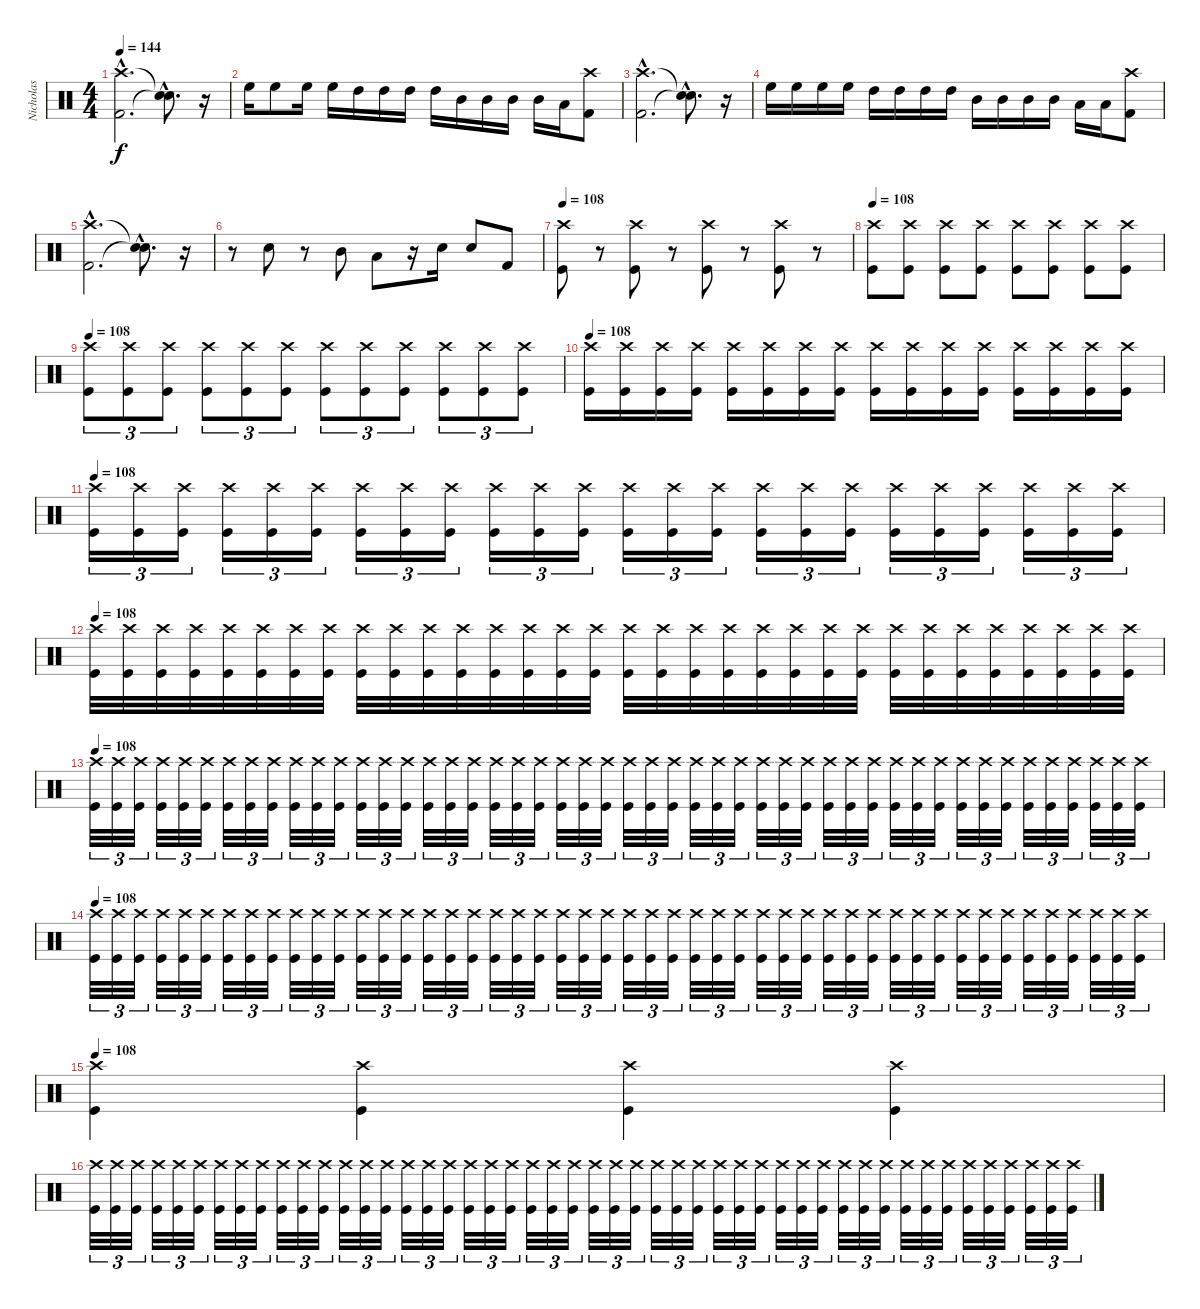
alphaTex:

\track ("Nicholas" "Nicholas") {instrument percussion}
\staff {score}
\articulation defaults
\ts (4 4)
\tempo 144
\clef neutral
\ks c
("Kick (hit) 2"{hac} "Crash high (hit)"{hac}).2{d dy f} ("Snare (hit)"{hac t} "Snare (hit)"{hac t}).8{d} r.16 |
"High Floor Tom (hit)".16 "High Floor Tom (hit)".8 "High Floor Tom (hit)".16 "High Floor Tom (hit)".16 "High Tom (hit)".16 "High Tom (hit)".16 "High Tom (hit)".16 "High Tom (hit)".16 "Mid Tom (hit)".16 "Mid Tom (hit)".16 "Mid Tom (hit)".16 "Mid Tom (hit)".16 "Low Tom (hit)".16 ("Kick (hit) 2" "Crash high (hit)").8 |
("Kick (hit) 2"{hac} "Crash high (hit)"{hac}).2{d} ("Snare (hit)"{hac t} "Snare (hit)"{hac t}).8{d} r.16 |
"High Floor Tom (hit)".16 "High Floor Tom (hit)".16 "High Floor Tom (hit)".16 "High Floor Tom (hit)".16 "High Tom (hit)".16 "High Tom (hit)".16 "High Tom (hit)".16 "High Tom (hit)".16 "Mid Tom (hit)".16 "Mid Tom (hit)".16 "Mid Tom (hit)".16 "Mid Tom (hit)".16 "Low Tom (hit)".16 "Low Tom (hit)".16 ("Kick (hit) 2" "Crash high (hit)").8 |
("Kick (hit) 2"{hac} "Crash high (hit)"{hac}).2{d} ("Snare (hit)"{hac t} "Snare (hit)"{hac t}).8{d} r.16 |
r.8 "Snare (hit) 2".8 r.8 "Mid Tom (hit)".8 "Low Tom (hit)".8 r.16 "Snare (hit) 2".16 "Snare (hit) 2".8 "Kick (hit) 2".8 |
\tempo 108
("Kick (hit)" "Crash high (hit)").8 r.8 ("Kick (hit)" "Crash high (hit)").8 r.8 ("Kick (hit)" "Crash high (hit)").8 r.8 ("Kick (hit)" "Crash high (hit)").8 r.8 |
\tempo 108
("Kick (hit)" "Crash high (hit)").8 ("Kick (hit)" "Crash high (hit)").8 ("Kick (hit)" "Crash high (hit)").8 ("Kick (hit)" "Crash high (hit)").8 ("Kick (hit)" "Crash high (hit)").8 ("Kick (hit)" "Crash high (hit)").8 ("Kick (hit)" "Crash high (hit)").8 ("Kick (hit)" "Crash high (hit)").8 |
\tempo 108
("Kick (hit)" "Crash high (hit)").8{tu (3 2)} ("Kick (hit)" "Crash high (hit)").8{tu (3 2)} ("Kick (hit)" "Crash high (hit)").8{tu (3 2)} ("Kick (hit)" "Crash high (hit)").8{tu (3 2)} ("Kick (hit)" "Crash high (hit)").8{tu (3 2)} ("Kick (hit)" "Crash high (hit)").8{tu (3 2)} ("Kick (hit)" "Crash high (hit)").8{tu (3 2)} ("Kick (hit)" "Crash high (hit)").8{tu (3 2)} ("Kick (hit)" "Crash high (hit)").8{tu (3 2)} ("Kick (hit)" "Crash high (hit)").8{tu (3 2)} ("Kick (hit)" "Crash high (hit)").8{tu (3 2)} ("Kick (hit)" "Crash high (hit)").8{tu (3 2)} |
\tempo 108
("Kick (hit)" "Crash high (hit)").16 ("Kick (hit)" "Crash high (hit)").16 ("Kick (hit)" "Crash high (hit)").16 ("Kick (hit)" "Crash high (hit)").16 ("Kick (hit)" "Crash high (hit)").16 ("Kick (hit)" "Crash high (hit)").16 ("Kick (hit)" "Crash high (hit)").16 ("Kick (hit)" "Crash high (hit)").16 ("Kick (hit)" "Crash high (hit)").16 ("Kick (hit)" "Crash high (hit)").16 ("Kick (hit)" "Crash high (hit)").16 ("Kick (hit)" "Crash high (hit)").16 ("Kick (hit)" "Crash high (hit)").16 ("Kick (hit)" "Crash high (hit)").16 ("Kick (hit)" "Crash high (hit)").16 ("Kick (hit)" "Crash high (hit)").16 |
\tempo 108
("Kick (hit)" "Crash high (hit)").16{tu (3 2)} ("Kick (hit)" "Crash high (hit)").16{tu (3 2)} ("Kick (hit)" "Crash high (hit)").16{tu (3 2)} ("Kick (hit)" "Crash high (hit)").16{tu (3 2)} ("Kick (hit)" "Crash high (hit)").16{tu (3 2)} ("Kick (hit)" "Crash high (hit)").16{tu (3 2)} ("Kick (hit)" "Crash high (hit)").16{tu (3 2)} ("Kick (hit)" "Crash high (hit)").16{tu (3 2)} ("Kick (hit)" "Crash high (hit)").16{tu (3 2)} ("Kick (hit)" "Crash high (hit)").16{tu (3 2)} ("Kick (hit)" "Crash high (hit)").16{tu (3 2)} ("Kick (hit)" "Crash high (hit)").16{tu (3 2)} ("Kick (hit)" "Crash high (hit)").16{tu (3 2)} ("Kick (hit)" "Crash high (hit)").16{tu (3 2)} ("Kick (hit)" "Crash high (hit)").16{tu (3 2)} ("Kick (hit)" "Crash high (hit)").16{tu (3 2)} ("Kick (hit)" "Crash high (hit)").16{tu (3 2)} ("Kick (hit)" "Crash high (hit)").16{tu (3 2)} ("Kick (hit)" "Crash high (hit)").16{tu (3 2)} ("Kick (hit)" "Crash high (hit)").16{tu (3 2)} ("Kick (hit)" "Crash high (hit)").16{tu (3 2)} ("Kick (hit)" "Crash high (hit)").16{tu (3 2)} ("Kick (hit)" "Crash high (hit)").16{tu (3 2)} ("Kick (hit)" "Crash high (hit)").16{tu (3 2)} |
\tempo 108
("Kick (hit)" "Crash high (hit)").32 ("Kick (hit)" "Crash high (hit)").32 ("Kick (hit)" "Crash high (hit)").32 ("Kick (hit)" "Crash high (hit)").32 ("Kick (hit)" "Crash high (hit)").32 ("Kick (hit)" "Crash high (hit)").32 ("Kick (hit)" "Crash high (hit)").32 ("Kick (hit)" "Crash high (hit)").32 ("Kick (hit)" "Crash high (hit)").32 ("Kick (hit)" "Crash high (hit)").32 ("Kick (hit)" "Crash high (hit)").32 ("Kick (hit)" "Crash high (hit)").32 ("Kick (hit)" "Crash high (hit)").32 ("Kick (hit)" "Crash high (hit)").32 ("Kick (hit)" "Crash high (hit)").32 ("Kick (hit)" "Crash high (hit)").32 ("Kick (hit)" "Crash high (hit)").32 ("Kick (hit)" "Crash high (hit)").32 ("Kick (hit)" "Crash high (hit)").32 ("Kick (hit)" "Crash high (hit)").32 ("Kick (hit)" "Crash high (hit)").32 ("Kick (hit)" "Crash high (hit)").32 ("Kick (hit)" "Crash high (hit)").32 ("Kick (hit)" "Crash high (hit)").32 ("Kick (hit)" "Crash high (hit)").32 ("Kick (hit)" "Crash high (hit)").32 ("Kick (hit)" "Crash high (hit)").32 ("Kick (hit)" "Crash high (hit)").32 ("Kick (hit)" "Crash high (hit)").32 ("Kick (hit)" "Crash high (hit)").32 ("Kick (hit)" "Crash high (hit)").32 ("Kick (hit)" "Crash high (hit)").32 |
\tempo 108
("Kick (hit)" "Crash high (hit)").32{tu (3 2)} ("Kick (hit)" "Crash high (hit)").32{tu (3 2)} ("Kick (hit)" "Crash high (hit)").32{tu (3 2)} ("Kick (hit)" "Crash high (hit)").32{tu (3 2)} ("Kick (hit)" "Crash high (hit)").32{tu (3 2)} ("Kick (hit)" "Crash high (hit)").32{tu (3 2)} ("Kick (hit)" "Crash high (hit)").32{tu (3 2)} ("Kick (hit)" "Crash high (hit)").32{tu (3 2)} ("Kick (hit)" "Crash high (hit)").32{tu (3 2)} ("Kick (hit)" "Crash high (hit)").32{tu (3 2)} ("Kick (hit)" "Crash high (hit)").32{tu (3 2)} ("Kick (hit)" "Crash high (hit)").32{tu (3 2)} ("Kick (hit)" "Crash high (hit)").32{tu (3 2)} ("Kick (hit)" "Crash high (hit)").32{tu (3 2)} ("Kick (hit)" "Crash high (hit)").32{tu (3 2)} ("Kick (hit)" "Crash high (hit)").32{tu (3 2)} ("Kick (hit)" "Crash high (hit)").32{tu (3 2)} ("Kick (hit)" "Crash high (hit)").32{tu (3 2)} ("Kick (hit)" "Crash high (hit)").32{tu (3 2)} ("Kick (hit)" "Crash high (hit)").32{tu (3 2)} ("Kick (hit)" "Crash high (hit)").32{tu (3 2)} ("Kick (hit)" "Crash high (hit)").32{tu (3 2)} ("Kick (hit)" "Crash high (hit)").32{tu (3 2)} ("Kick (hit)" "Crash high (hit)").32{tu (3 2)} ("Kick (hit)" "Crash high (hit)").32{tu (3 2)} ("Kick (hit)" "Crash high (hit)").32{tu (3 2)} ("Kick (hit)" "Crash high (hit)").32{tu (3 2)} ("Kick (hit)" "Crash high (hit)").32{tu (3 2)} ("Kick (hit)" "Crash high (hit)").32{tu (3 2)} ("Kick (hit)" "Crash high (hit)").32{tu (3 2)} ("Kick (hit)" "Crash high (hit)").32{tu (3 2)} ("Kick (hit)" "Crash high (hit)").32{tu (3 2)} ("Kick (hit)" "Crash high (hit)").32{tu (3 2)} ("Kick (hit)" "Crash high (hit)").32{tu (3 2)} ("Kick (hit)" "Crash high (hit)").32{tu (3 2)} ("Kick (hit)" "Crash high (hit)").32{tu (3 2)} ("Kick (hit)" "Crash high (hit)").32{tu (3 2)} ("Kick (hit)" "Crash high (hit)").32{tu (3 2)} ("Kick (hit)" "Crash high (hit)").32{tu (3 2)} ("Kick (hit)" "Crash high (hit)").32{tu (3 2)} ("Kick (hit)" "Crash high (hit)").32{tu (3 2)} ("Kick (hit)" "Crash high (hit)").32{tu (3 2)} ("Kick (hit)" "Crash high (hit)").32{tu (3 2)} ("Kick (hit)" "Crash high (hit)").32{tu (3 2)} ("Kick (hit)" "Crash high (hit)").32{tu (3 2)} ("Kick (hit)" "Crash high (hit)").32{tu (3 2)} ("Kick (hit)" "Crash high (hit)").32{tu (3 2)} ("Kick (hit)" "Crash high (hit)").32{tu (3 2)} |
\tempo 108
("Kick (hit)" "Crash high (hit)").32{tu (3 2)} ("Kick (hit)" "Crash high (hit)").32{tu (3 2)} ("Kick (hit)" "Crash high (hit)").32{tu (3 2)} ("Kick (hit)" "Crash high (hit)").32{tu (3 2)} ("Kick (hit)" "Crash high (hit)").32{tu (3 2)} ("Kick (hit)" "Crash high (hit)").32{tu (3 2)} ("Kick (hit)" "Crash high (hit)").32{tu (3 2)} ("Kick (hit)" "Crash high (hit)").32{tu (3 2)} ("Kick (hit)" "Crash high (hit)").32{tu (3 2)} ("Kick (hit)" "Crash high (hit)").32{tu (3 2)} ("Kick (hit)" "Crash high (hit)").32{tu (3 2)} ("Kick (hit)" "Crash high (hit)").32{tu (3 2)} ("Kick (hit)" "Crash high (hit)").32{tu (3 2)} ("Kick (hit)" "Crash high (hit)").32{tu (3 2)} ("Kick (hit)" "Crash high (hit)").32{tu (3 2)} ("Kick (hit)" "Crash high (hit)").32{tu (3 2)} ("Kick (hit)" "Crash high (hit)").32{tu (3 2)} ("Kick (hit)" "Crash high (hit)").32{tu (3 2)} ("Kick (hit)" "Crash high (hit)").32{tu (3 2)} ("Kick (hit)" "Crash high (hit)").32{tu (3 2)} ("Kick (hit)" "Crash high (hit)").32{tu (3 2)} ("Kick (hit)" "Crash high (hit)").32{tu (3 2)} ("Kick (hit)" "Crash high (hit)").32{tu (3 2)} ("Kick (hit)" "Crash high (hit)").32{tu (3 2)} ("Kick (hit)" "Crash high (hit)").32{tu (3 2)} ("Kick (hit)" "Crash high (hit)").32{tu (3 2)} ("Kick (hit)" "Crash high (hit)").32{tu (3 2)} ("Kick (hit)" "Crash high (hit)").32{tu (3 2)} ("Kick (hit)" "Crash high (hit)").32{tu (3 2)} ("Kick (hit)" "Crash high (hit)").32{tu (3 2)} ("Kick (hit)" "Crash high (hit)").32{tu (3 2)} ("Kick (hit)" "Crash high (hit)").32{tu (3 2)} ("Kick (hit)" "Crash high (hit)").32{tu (3 2)} ("Kick (hit)" "Crash high (hit)").32{tu (3 2)} ("Kick (hit)" "Crash high (hit)").32{tu (3 2)} ("Kick (hit)" "Crash high (hit)").32{tu (3 2)} ("Kick (hit)" "Crash high (hit)").32{tu (3 2)} ("Kick (hit)" "Crash high (hit)").32{tu (3 2)} ("Kick (hit)" "Crash high (hit)").32{tu (3 2)} ("Kick (hit)" "Crash high (hit)").32{tu (3 2)} ("Kick (hit)" "Crash high (hit)").32{tu (3 2)} ("Kick (hit)" "Crash high (hit)").32{tu (3 2)} ("Kick (hit)" "Crash high (hit)").32{tu (3 2)} ("Kick (hit)" "Crash high (hit)").32{tu (3 2)} ("Kick (hit)" "Crash high (hit)").32{tu (3 2)} ("Kick (hit)" "Crash high (hit)").32{tu (3 2)} ("Kick (hit)" "Crash high (hit)").32{tu (3 2)} ("Kick (hit)" "Crash high (hit)").32{tu (3 2)} |
\tempo 108
("Kick (hit)" "Crash high (hit)").4 ("Kick (hit)" "Crash high (hit)").4 ("Kick (hit)" "Crash high (hit)").4 ("Kick (hit)" "Crash high (hit)").4 |
("Kick (hit)" "Crash high (hit)").32{tu (3 2)} ("Kick (hit)" "Crash high (hit)").32{tu (3 2)} ("Kick (hit)" "Crash high (hit)").32{tu (3 2)} ("Kick (hit)" "Crash high (hit)").32{tu (3 2)} ("Kick (hit)" "Crash high (hit)").32{tu (3 2)} ("Kick (hit)" "Crash high (hit)").32{tu (3 2)} ("Kick (hit)" "Crash high (hit)").32{tu (3 2)} ("Kick (hit)" "Crash high (hit)").32{tu (3 2)} ("Kick (hit)" "Crash high (hit)").32{tu (3 2)} ("Kick (hit)" "Crash high (hit)").32{tu (3 2)} ("Kick (hit)" "Crash high (hit)").32{tu (3 2)} ("Kick (hit)" "Crash high (hit)").32{tu (3 2)} ("Kick (hit)" "Crash high (hit)").32{tu (3 2)} ("Kick (hit)" "Crash high (hit)").32{tu (3 2)} ("Kick (hit)" "Crash high (hit)").32{tu (3 2)} ("Kick (hit)" "Crash high (hit)").32{tu (3 2)} ("Kick (hit)" "Crash high (hit)").32{tu (3 2)} ("Kick (hit)" "Crash high (hit)").32{tu (3 2)} ("Kick (hit)" "Crash high (hit)").32{tu (3 2)} ("Kick (hit)" "Crash high (hit)").32{tu (3 2)} ("Kick (hit)" "Crash high (hit)").32{tu (3 2)} ("Kick (hit)" "Crash high (hit)").32{tu (3 2)} ("Kick (hit)" "Crash high (hit)").32{tu (3 2)} ("Kick (hit)" "Crash high (hit)").32{tu (3 2)} ("Kick (hit)" "Crash high (hit)").32{tu (3 2)} ("Kick (hit)" "Crash high (hit)").32{tu (3 2)} ("Kick (hit)" "Crash high (hit)").32{tu (3 2)} ("Kick (hit)" "Crash high (hit)").32{tu (3 2)} ("Kick (hit)" "Crash high (hit)").32{tu (3 2)} ("Kick (hit)" "Crash high (hit)").32{tu (3 2)} ("Kick (hit)" "Crash high (hit)").32{tu (3 2)} ("Kick (hit)" "Crash high (hit)").32{tu (3 2)} ("Kick (hit)" "Crash high (hit)").32{tu (3 2)} ("Kick (hit)" "Crash high (hit)").32{tu (3 2)} ("Kick (hit)" "Crash high (hit)").32{tu (3 2)} ("Kick (hit)" "Crash high (hit)").32{tu (3 2)} ("Kick (hit)" "Crash high (hit)").32{tu (3 2)} ("Kick (hit)" "Crash high (hit)").32{tu (3 2)} ("Kick (hit)" "Crash high (hit)").32{tu (3 2)} ("Kick (hit)" "Crash high (hit)").32{tu (3 2)} ("Kick (hit)" "Crash high (hit)").32{tu (3 2)} ("Kick (hit)" "Crash high (hit)").32{tu (3 2)} ("Kick (hit)" "Crash high (hit)").32{tu (3 2)} ("Kick (hit)" "Crash high (hit)").32{tu (3 2)} ("Kick (hit)" "Crash high (hit)").32{tu (3 2)} ("Kick (hit)" "Crash high (hit)").32{tu (3 2)} ("Kick (hit)" "Crash high (hit)").32{tu (3 2)} ("Kick (hit)" "Crash high (hit)").32{tu (3 2)}
